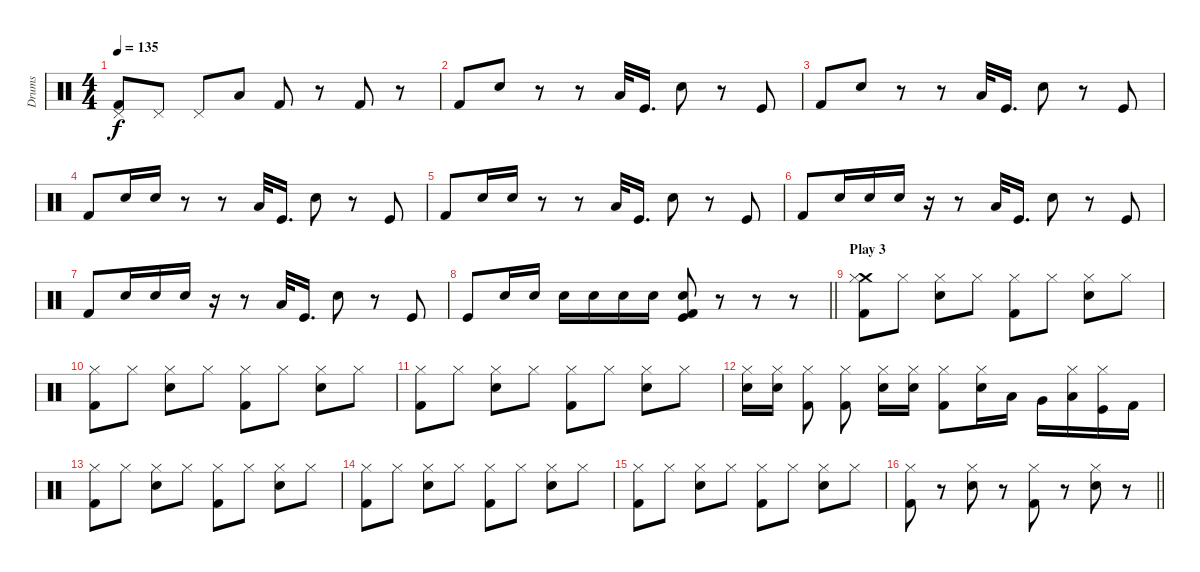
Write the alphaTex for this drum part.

\track ("Drums" "Drums") {instrument percussion}
\staff {score}
\articulation defaults
\ts (4 4)
\tempo 135
\clef neutral
\ks c
("Kick (hit) 2" "Pedal Hi-Hat (hit)").8{dy f} "Pedal Hi-Hat (hit)".8 "Pedal Hi-Hat (hit)".8 "Low Tom (hit)".8 "Kick (hit) 2".8 r.8 "Kick (hit) 2".8 r.8 |
"Kick (hit) 2".8 "Snare (hit) 2".8 r.8 r.8 "Low Tom (hit)".32 "Kick (hit)".16{d beam split} "Snare (hit) 2".8 r.8 "Kick (hit)".8 |
"Kick (hit) 2".8 "Snare (hit) 2".8 r.8 r.8 "Low Tom (hit)".32 "Kick (hit)".16{d beam split} "Snare (hit) 2".8 r.8 "Kick (hit)".8 |
"Kick (hit) 2".8 "Snare (hit) 2".16 "Snare (hit) 2".16 r.8 r.8 "Low Tom (hit)".32 "Kick (hit)".16{d beam split} "Snare (hit) 2".8 r.8 "Kick (hit)".8 |
"Kick (hit) 2".8 "Snare (hit) 2".16 "Snare (hit) 2".16 r.8 r.8 "Low Tom (hit)".32 "Kick (hit)".16{d beam split} "Snare (hit) 2".8 r.8 "Kick (hit)".8 |
"Kick (hit) 2".8 "Snare (hit) 2".16 "Snare (hit) 2".16{beam merge} "Snare (hit) 2".16 r.16 r.8 "Low Tom (hit)".32 "Kick (hit)".16{d beam split} "Snare (hit) 2".8 r.8 "Kick (hit)".8 |
"Kick (hit) 2".8 "Snare (hit) 2".16 "Snare (hit) 2".16{beam merge} "Snare (hit) 2".16 r.16 r.8 "Low Tom (hit)".32 "Kick (hit)".16{d beam split} "Snare (hit) 2".8 r.8 "Kick (hit)".8 |
\barLineRight lightlight "Kick (hit)".8 "Snare (hit) 2".16 "Snare (hit) 2".16 "Snare (hit) 2".16 "Snare (hit) 2".16 "Snare (hit) 2".16 "Snare (hit) 2".16
("Kick (hit)" "Snare (hit) 2" "Kick (hit) 2").8 r.8 r.8 r.8 |
\section ("" "Play 3")
("Kick (hit) 2" "Crash medium (hit)" "Hi-Hat (closed)").8 "Hi-Hat (closed)".8 ("Electric Snare (hit)" "Hi-Hat (closed)").8 "Hi-Hat (closed)".8 ("Kick (hit) 2" "Hi-Hat (closed)").8 "Hi-Hat (closed)".8 ("Electric Snare (hit)" "Hi-Hat (closed)").8 "Hi-Hat (closed)".8 |
("Kick (hit) 2" "Hi-Hat (closed)").8 "Hi-Hat (closed)".8 ("Electric Snare (hit)" "Hi-Hat (closed)").8 "Hi-Hat (closed)".8 ("Kick (hit) 2" "Hi-Hat (closed)").8 "Hi-Hat (closed)".8 ("Electric Snare (hit)" "Hi-Hat (closed)").8 "Hi-Hat (closed)".8 |
("Kick (hit) 2" "Hi-Hat (closed)").8 "Hi-Hat (closed)".8 ("Electric Snare (hit)" "Hi-Hat (closed)").8 "Hi-Hat (closed)".8 ("Kick (hit) 2" "Hi-Hat (closed)").8 "Hi-Hat (closed)".8 ("Electric Snare (hit)" "Hi-Hat (closed)").8 "Hi-Hat (closed)".8 |
("Electric Snare (hit)" "Hi-Hat (closed)").16 ("Electric Snare (hit)" "Hi-Hat (closed)").16{beam split} ("Kick (hit) 2" "Hi-Hat (closed)").8 ("Kick (hit) 2" "Hi-Hat (closed)").8{beam split} ("Electric Snare (hit)" "Hi-Hat (closed)").16{beam merge} ("Electric Snare (hit)" "Hi-Hat (closed)").16{beam split} ("Kick (hit) 2" "Hi-Hat (closed)").8 ("Electric Snare (hit)" "Hi-Hat (closed)").16 "Low Tom (hit)".16 "Very Low Tom (hit)".16 ("Low Floor Tom (hit)" "Hi-Hat (closed)").16 ("Kick (hit)" "Hi-Hat (closed)").16 "Kick (hit) 2".16 |
("Kick (hit) 2" "Hi-Hat (closed)").8 "Hi-Hat (closed)".8 ("Electric Snare (hit)" "Hi-Hat (closed)").8 "Hi-Hat (closed)".8 ("Kick (hit) 2" "Hi-Hat (closed)").8 "Hi-Hat (closed)".8 ("Electric Snare (hit)" "Hi-Hat (closed)").8 "Hi-Hat (closed)".8 |
("Kick (hit) 2" "Hi-Hat (closed)").8 "Hi-Hat (closed)".8 ("Electric Snare (hit)" "Hi-Hat (closed)").8 "Hi-Hat (closed)".8 ("Kick (hit) 2" "Hi-Hat (closed)").8 "Hi-Hat (closed)".8 ("Electric Snare (hit)" "Hi-Hat (closed)").8 "Hi-Hat (closed)".8 |
("Kick (hit) 2" "Hi-Hat (closed)").8 "Hi-Hat (closed)".8 ("Electric Snare (hit)" "Hi-Hat (closed)").8 "Hi-Hat (closed)".8 ("Kick (hit) 2" "Hi-Hat (closed)").8 "Hi-Hat (closed)".8 ("Electric Snare (hit)" "Hi-Hat (closed)").8 "Hi-Hat (closed)".8 |
\barLineRight lightlight
("Kick (hit) 2" "Hi-Hat (closed)").8 r.8 ("Electric Snare (hit)" "Hi-Hat (closed)").8 r.8 ("Kick (hit) 2" "Hi-Hat (closed)").8 r.8 ("Electric Snare (hit)" "Hi-Hat (closed)").8 r.8
